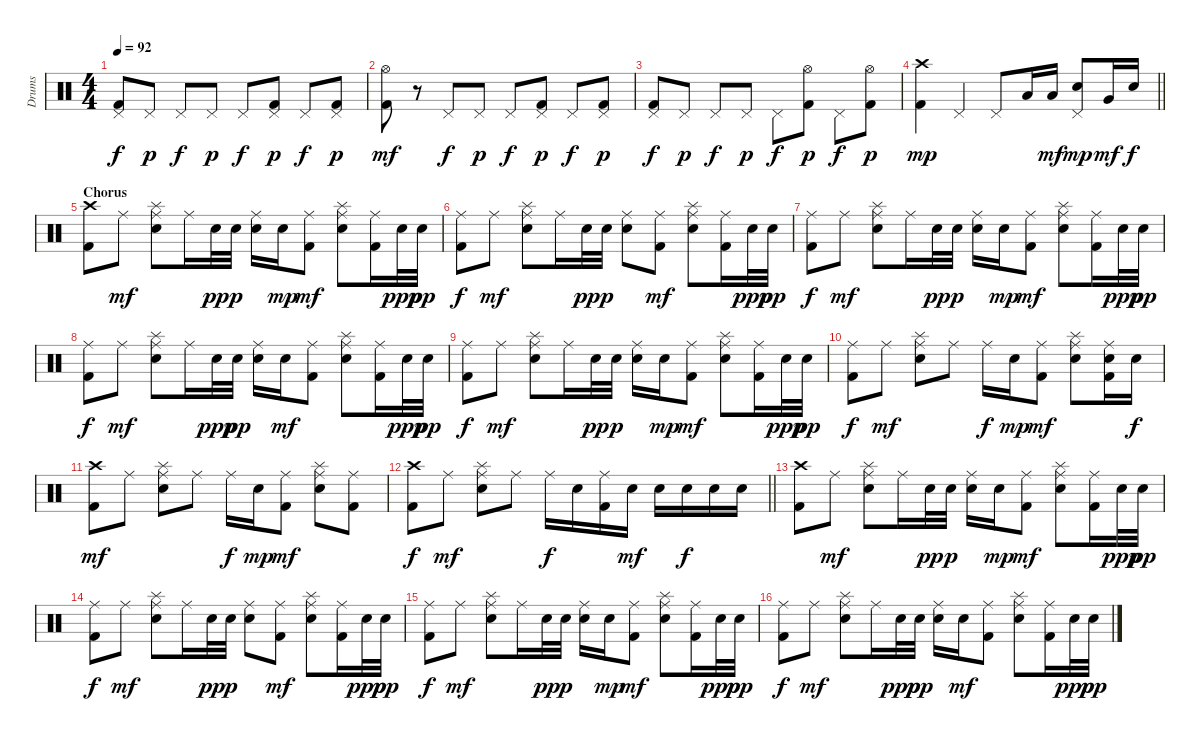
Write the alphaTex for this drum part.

\track ("Drums" "Drums") {instrument percussion}
\staff {score}
\articulation defaults
\ts (4 4)
\tempo 92
\clef neutral
\ks aminor
("Pedal Hi-Hat (hit)" "Kick (hit) 2").8{dy f} "Pedal Hi-Hat (hit)".8{dy p} "Pedal Hi-Hat (hit)".8{dy f} "Pedal Hi-Hat (hit)".8{dy p} "Pedal Hi-Hat (hit)".8{dy f} ("Pedal Hi-Hat (hit)" "Kick (hit) 2").8{dy p} "Pedal Hi-Hat (hit)".8{dy f} ("Pedal Hi-Hat (hit)" "Kick (hit) 2").8{dy p} |
("Hi-Hat (open)" "Kick (hit) 2").8{dy mf} r.8 "Pedal Hi-Hat (hit)".8{dy f} "Pedal Hi-Hat (hit)".8{dy p} "Pedal Hi-Hat (hit)".8{dy f} ("Pedal Hi-Hat (hit)" "Kick (hit) 2").8{dy p} "Pedal Hi-Hat (hit)".8{dy f} ("Pedal Hi-Hat (hit)" "Kick (hit) 2").8{dy p} |
("Pedal Hi-Hat (hit)" "Kick (hit) 2").8{dy f} "Pedal Hi-Hat (hit)".8{dy p} "Pedal Hi-Hat (hit)".8{dy f} "Pedal Hi-Hat (hit)".8{dy p} "Pedal Hi-Hat (hit)".8{dy f} ("Hi-Hat (open)" "Kick (hit) 2").8{dy p} "Pedal Hi-Hat (hit)".8{dy f} ("Hi-Hat (open)" "Kick (hit) 2").8{dy p} |
\barLineRight lightlight
("Crash high (hit)" "Kick (hit) 2").4{dy mp} "Pedal Hi-Hat (hit)".4 "Pedal Hi-Hat (hit)".8 "Low Tom (hit)".16 "Low Tom (hit)".16{dy mf} ("Pedal Hi-Hat (hit)" "Electric Snare (hit)").8{dy mp} "Very Low Tom (hit)".16{dy mf} "Electric Snare (hit)".16{dy f} |
\section ("" "Chorus")
("Crash high (hit)" "Kick (hit) 2").8 "Ride (middle)".8{dy mf} ("Ride (middle)" "Splash (hit)" "Electric Snare (hit)").8 "Ride (middle)".16 "Electric Snare (hit)".32{dy pp} "Electric Snare (hit)".32{dy p} ("Ride (middle)" "Electric Snare (hit)").16 "Electric Snare (hit)".16{dy mp} ("Ride (middle)" "Kick (hit) 2").8{dy mf} ("Ride (middle)" "Splash (hit)" "Electric Snare (hit)").8 ("Ride (middle)" "Kick (hit) 2").16 "Electric Snare (hit)".32{dy ppp} "Electric Snare (hit)".32{dy pp} |
("Ride (middle)" "Kick (hit) 2").8{dy f} "Ride (middle)".8{dy mf} ("Ride (middle)" "Splash (hit)" "Electric Snare (hit)").8 "Ride (middle)".16 "Electric Snare (hit)".32{dy pp} "Electric Snare (hit)".32{dy p} ("Ride (middle)" "Electric Snare (hit)").8 ("Ride (middle)" "Kick (hit) 2").8{dy mf} ("Ride (middle)" "Splash (hit)" "Electric Snare (hit)").8 ("Ride (middle)" "Kick (hit) 2").16 "Electric Snare (hit)".32{dy ppp} "Electric Snare (hit)".32{dy pp} |
("Ride (middle)" "Kick (hit) 2").8{dy f} "Ride (middle)".8{dy mf} ("Ride (middle)" "Splash (hit)" "Electric Snare (hit)").8 "Ride (middle)".16 "Electric Snare (hit)".32{dy pp} "Electric Snare (hit)".32{dy p} ("Ride (middle)" "Electric Snare (hit)").16 "Electric Snare (hit)".16{dy mp} ("Ride (middle)" "Kick (hit) 2").8{dy mf} ("Ride (middle)" "Splash (hit)" "Electric Snare (hit)").8 ("Ride (middle)" "Kick (hit) 2").16 "Electric Snare (hit)".32{dy ppp} "Electric Snare (hit)".32{dy pp} |
("Ride (middle)" "Kick (hit) 2").8{dy f} "Ride (middle)".8{dy mf} ("Ride (middle)" "Splash (hit)" "Electric Snare (hit)").8 "Ride (middle)".16 "Electric Snare (hit)".32{dy ppp} "Electric Snare (hit)".32{dy pp} ("Ride (middle)" "Electric Snare (hit)").16 "Electric Snare (hit)".16{dy mf} ("Ride (middle)" "Kick (hit) 2").8 ("Ride (middle)" "Splash (hit)" "Electric Snare (hit)").8 ("Ride (middle)" "Kick (hit) 2").16 "Electric Snare (hit)".32{dy ppp} "Electric Snare (hit)".32{dy pp} |
("Ride (middle)" "Kick (hit) 2").8{dy f} "Ride (middle)".8{dy mf} ("Ride (middle)" "Splash (hit)" "Electric Snare (hit)").8 "Ride (middle)".16 "Electric Snare (hit)".32{dy pp} "Electric Snare (hit)".32{dy p} ("Ride (middle)" "Electric Snare (hit)").16 "Electric Snare (hit)".16{dy mp} ("Ride (middle)" "Kick (hit) 2").8{dy mf} ("Ride (middle)" "Splash (hit)" "Electric Snare (hit)").8 ("Ride (middle)" "Kick (hit) 2").16 "Electric Snare (hit)".32{dy ppp} "Electric Snare (hit)".32{dy pp} |
("Ride (middle)" "Kick (hit) 2").8{dy f} "Ride (middle)".8{dy mf} ("Ride (middle)" "Splash (hit)" "Electric Snare (hit)").8 "Ride (middle)".8 "Ride (middle)".16{dy f} "Electric Snare (hit)".16{dy mp} ("Ride (middle)" "Kick (hit) 2").8{dy mf} ("Ride (middle)" "Splash (hit)" "Electric Snare (hit)").8 ("Ride (middle)" "Electric Snare (hit)" "Kick (hit) 2").16 "Electric Snare (hit)".16{dy f} |
("Crash high (hit)" "Kick (hit) 2").8{dy mf} "Ride (middle)".8 ("Ride (middle)" "Splash (hit)" "Electric Snare (hit)").8 "Ride (middle)".8 "Ride (middle)".16{dy f} "Electric Snare (hit)".16{dy mp} ("Ride (middle)" "Kick (hit) 2").8{dy mf} ("Ride (middle)" "Splash (hit)" "Electric Snare (hit)").8 ("Ride (middle)" "Kick (hit) 2").8 |
\barLineRight lightlight
("Crash high (hit)" "Kick (hit) 2").8{dy f} "Ride (middle)".8{dy mf} ("Ride (middle)" "Splash (hit)" "Electric Snare (hit)").8 "Ride (middle)".8 "Ride (middle)".16{dy f} "Electric Snare (hit)".16 ("Ride (middle)" "Kick (hit) 2").16 "Electric Snare (hit)".16{dy mf} "Electric Snare (hit)".16 "Electric Snare (hit)".16{dy f} "Electric Snare (hit)".16 "Electric Snare (hit)".16 |
("Crash high (hit)" "Kick (hit) 2").8 "Ride (middle)".8{dy mf} ("Ride (middle)" "Splash (hit)" "Electric Snare (hit)").8 "Ride (middle)".16 "Electric Snare (hit)".32{dy pp} "Electric Snare (hit)".32{dy p} ("Ride (middle)" "Electric Snare (hit)").16 "Electric Snare (hit)".16{dy mp} ("Ride (middle)" "Kick (hit) 2").8{dy mf} ("Ride (middle)" "Splash (hit)" "Electric Snare (hit)").8 ("Ride (middle)" "Kick (hit) 2").16 "Electric Snare (hit)".32{dy ppp} "Electric Snare (hit)".32{dy pp} |
("Ride (middle)" "Kick (hit) 2").8{dy f} "Ride (middle)".8{dy mf} ("Ride (middle)" "Splash (hit)" "Electric Snare (hit)").8 "Ride (middle)".16 "Electric Snare (hit)".32{dy pp} "Electric Snare (hit)".32{dy p} ("Ride (middle)" "Electric Snare (hit)").8 ("Ride (middle)" "Kick (hit) 2").8{dy mf} ("Ride (middle)" "Splash (hit)" "Electric Snare (hit)").8 ("Ride (middle)" "Kick (hit) 2").16 "Electric Snare (hit)".32{dy ppp} "Electric Snare (hit)".32{dy pp} |
("Ride (middle)" "Kick (hit) 2").8{dy f} "Ride (middle)".8{dy mf} ("Ride (middle)" "Splash (hit)" "Electric Snare (hit)").8 "Ride (middle)".16 "Electric Snare (hit)".32{dy pp} "Electric Snare (hit)".32{dy p} ("Ride (middle)" "Electric Snare (hit)").16 "Electric Snare (hit)".16{dy mp} ("Ride (middle)" "Kick (hit) 2").8{dy mf} ("Ride (middle)" "Splash (hit)" "Electric Snare (hit)").8 ("Ride (middle)" "Kick (hit) 2").16 "Electric Snare (hit)".32{dy ppp} "Electric Snare (hit)".32{dy pp} |
("Ride (middle)" "Kick (hit) 2").8{dy f} "Ride (middle)".8{dy mf} ("Ride (middle)" "Splash (hit)" "Electric Snare (hit)").8 "Ride (middle)".16 "Electric Snare (hit)".32{dy ppp} "Electric Snare (hit)".32{dy pp} ("Ride (middle)" "Electric Snare (hit)").16 "Electric Snare (hit)".16{dy mf} ("Ride (middle)" "Kick (hit) 2").8 ("Ride (middle)" "Splash (hit)" "Electric Snare (hit)").8 ("Ride (middle)" "Kick (hit) 2").16 "Electric Snare (hit)".32{dy ppp} "Electric Snare (hit)".32{dy pp}
